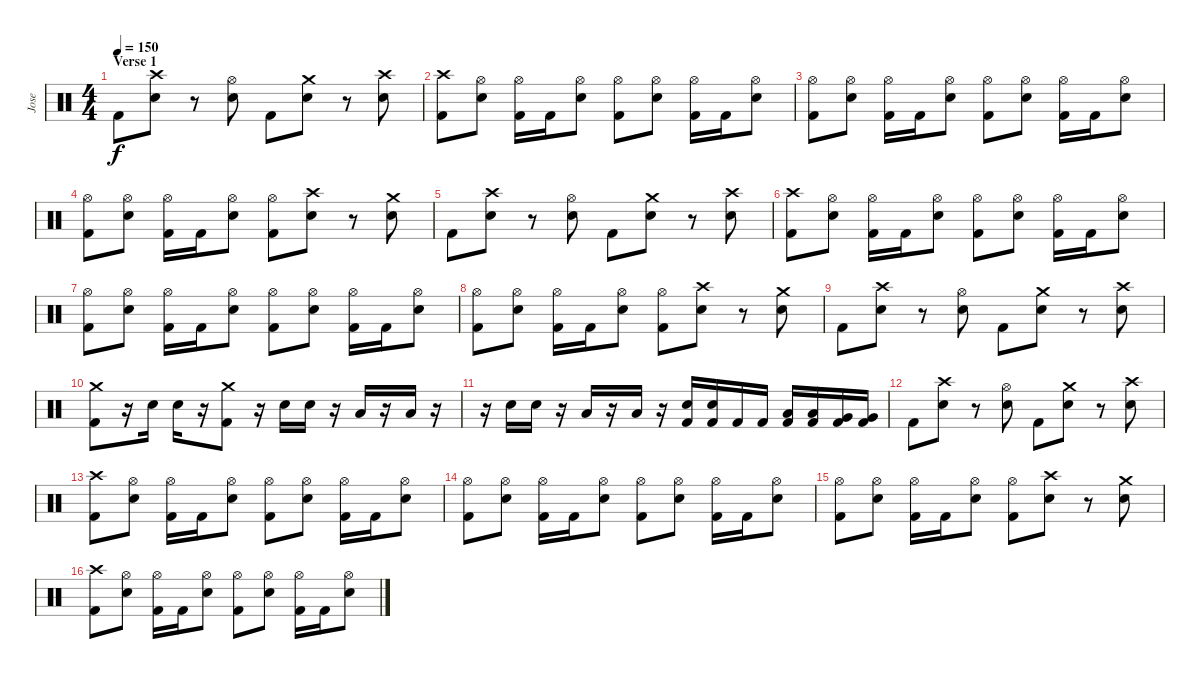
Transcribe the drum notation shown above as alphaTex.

\track ("Jose" "Jose") {instrument percussion}
\staff {score}
\articulation defaults
\ts (4 4)
\section ("" "Verse 1")
\tempo 150
\clef neutral
\ks c "Kick (hit) 2".8{dy f}
("Crash high (hit)" "Snare (hit) 2").8 r.8 ("Hi-Hat (open)" "Snare (hit) 2").8 "Kick (hit) 2".8 ("Crash medium (hit)" "Snare (hit) 2").8 r.8 ("Crash high (hit)" "Snare (hit) 2").8 |
("Crash high (hit)" "Kick (hit) 2").8 ("Hi-Hat (open)" "Snare (hit) 2").8 ("Hi-Hat (open)" "Kick (hit) 2").16 "Kick (hit) 2".16 ("Hi-Hat (open)" "Snare (hit) 2").8 ("Hi-Hat (open)" "Kick (hit) 2").8 ("Hi-Hat (open)" "Snare (hit) 2").8 ("Hi-Hat (open)" "Kick (hit) 2").16 "Kick (hit) 2".16 ("Hi-Hat (open)" "Snare (hit) 2").8 |
("Hi-Hat (open)" "Kick (hit) 2").8 ("Hi-Hat (open)" "Snare (hit) 2").8 ("Hi-Hat (open)" "Kick (hit) 2").16 "Kick (hit) 2".16 ("Hi-Hat (open)" "Snare (hit) 2").8 ("Hi-Hat (open)" "Kick (hit) 2").8 ("Hi-Hat (open)" "Snare (hit) 2").8 ("Hi-Hat (open)" "Kick (hit) 2").16 "Kick (hit) 2".16 ("Hi-Hat (open)" "Snare (hit) 2").8 |
("Hi-Hat (open)" "Kick (hit) 2").8 ("Hi-Hat (open)" "Snare (hit) 2").8 ("Hi-Hat (open)" "Kick (hit) 2").16 "Kick (hit) 2".16 ("Hi-Hat (open)" "Snare (hit) 2").8 ("Hi-Hat (open)" "Kick (hit) 2").8 ("Crash high (hit)" "Snare (hit) 2").8 r.8 ("Crash medium (hit)" "Snare (hit) 2").8 |
"Kick (hit) 2".8 ("Crash high (hit)" "Snare (hit) 2").8 r.8 ("Hi-Hat (open)" "Snare (hit) 2").8 "Kick (hit) 2".8 ("Crash medium (hit)" "Snare (hit) 2").8 r.8 ("Crash high (hit)" "Snare (hit) 2").8 |
("Crash high (hit)" "Kick (hit) 2").8 ("Hi-Hat (open)" "Snare (hit) 2").8 ("Hi-Hat (open)" "Kick (hit) 2").16 "Kick (hit) 2".16 ("Hi-Hat (open)" "Snare (hit) 2").8 ("Hi-Hat (open)" "Kick (hit) 2").8 ("Hi-Hat (open)" "Snare (hit) 2").8 ("Hi-Hat (open)" "Kick (hit) 2").16 "Kick (hit) 2".16 ("Hi-Hat (open)" "Snare (hit) 2").8 |
("Hi-Hat (open)" "Kick (hit) 2").8 ("Hi-Hat (open)" "Snare (hit) 2").8 ("Hi-Hat (open)" "Kick (hit) 2").16 "Kick (hit) 2".16 ("Hi-Hat (open)" "Snare (hit) 2").8 ("Hi-Hat (open)" "Kick (hit) 2").8 ("Hi-Hat (open)" "Snare (hit) 2").8 ("Hi-Hat (open)" "Kick (hit) 2").16 "Kick (hit) 2".16 ("Hi-Hat (open)" "Snare (hit) 2").8 |
("Hi-Hat (open)" "Kick (hit) 2").8 ("Hi-Hat (open)" "Snare (hit) 2").8 ("Hi-Hat (open)" "Kick (hit) 2").16 "Kick (hit) 2".16 ("Hi-Hat (open)" "Snare (hit) 2").8 ("Hi-Hat (open)" "Kick (hit) 2").8 ("Crash high (hit)" "Snare (hit) 2").8 r.8 ("Crash medium (hit)" "Snare (hit) 2").8 |
"Kick (hit) 2".8 ("Crash high (hit)" "Snare (hit) 2").8 r.8 ("Hi-Hat (open)" "Snare (hit) 2").8 "Kick (hit) 2".8 ("Crash medium (hit)" "Snare (hit) 2").8 r.8 ("Crash high (hit)" "Snare (hit) 2").8 |
("Crash medium (hit)" "Kick (hit) 2").8 r.16 "Electric Snare (hit)".16 "Electric Snare (hit)".16 r.16 ("Crash medium (hit)" "Kick (hit) 2").8 r.16 "Electric Snare (hit)".16 "Electric Snare (hit)".16 r.16 "Low Tom (hit)".16 r.16 "Low Tom (hit)".16 r.16 |
r.16 "Electric Snare (hit)".16 "Electric Snare (hit)".16 r.16 "Low Tom (hit)".16 r.16 "Low Tom (hit)".16 r.16 ("Electric Snare (hit)" "Kick (hit) 2").16 ("Electric Snare (hit)" "Kick (hit) 2").16 "Kick (hit) 2".16 "Kick (hit) 2".16 ("Low Tom (hit)" "Kick (hit) 2").16 ("Low Tom (hit)" "Kick (hit) 2").16 ("Very Low Tom (hit)" "Kick (hit) 2").16 ("Very Low Tom (hit)" "Kick (hit) 2").16 |
"Kick (hit) 2".8 ("Crash high (hit)" "Snare (hit) 2").8 r.8 ("Hi-Hat (open)" "Snare (hit) 2").8 "Kick (hit) 2".8 ("Crash medium (hit)" "Snare (hit) 2").8 r.8 ("Crash high (hit)" "Snare (hit) 2").8 |
("Crash high (hit)" "Kick (hit) 2").8 ("Hi-Hat (open)" "Snare (hit) 2").8 ("Hi-Hat (open)" "Kick (hit) 2").16 "Kick (hit) 2".16 ("Hi-Hat (open)" "Snare (hit) 2").8 ("Hi-Hat (open)" "Kick (hit) 2").8 ("Hi-Hat (open)" "Snare (hit) 2").8 ("Hi-Hat (open)" "Kick (hit) 2").16 "Kick (hit) 2".16 ("Hi-Hat (open)" "Snare (hit) 2").8 |
("Hi-Hat (open)" "Kick (hit) 2").8 ("Hi-Hat (open)" "Snare (hit) 2").8 ("Hi-Hat (open)" "Kick (hit) 2").16 "Kick (hit) 2".16 ("Hi-Hat (open)" "Snare (hit) 2").8 ("Hi-Hat (open)" "Kick (hit) 2").8 ("Hi-Hat (open)" "Snare (hit) 2").8 ("Hi-Hat (open)" "Kick (hit) 2").16 "Kick (hit) 2".16 ("Hi-Hat (open)" "Snare (hit) 2").8 |
("Hi-Hat (open)" "Kick (hit) 2").8 ("Hi-Hat (open)" "Snare (hit) 2").8 ("Hi-Hat (open)" "Kick (hit) 2").16 "Kick (hit) 2".16 ("Hi-Hat (open)" "Snare (hit) 2").8 ("Hi-Hat (open)" "Kick (hit) 2").8 ("Crash high (hit)" "Snare (hit) 2").8 r.8 ("Crash medium (hit)" "Snare (hit) 2").8 |
("Crash high (hit)" "Kick (hit) 2").8 ("Hi-Hat (open)" "Snare (hit) 2").8 ("Hi-Hat (open)" "Kick (hit) 2").16 "Kick (hit) 2".16 ("Hi-Hat (open)" "Snare (hit) 2").8 ("Hi-Hat (open)" "Kick (hit) 2").8 ("Hi-Hat (open)" "Snare (hit) 2").8 ("Hi-Hat (open)" "Kick (hit) 2").16 "Kick (hit) 2".16 ("Hi-Hat (open)" "Snare (hit) 2").8
